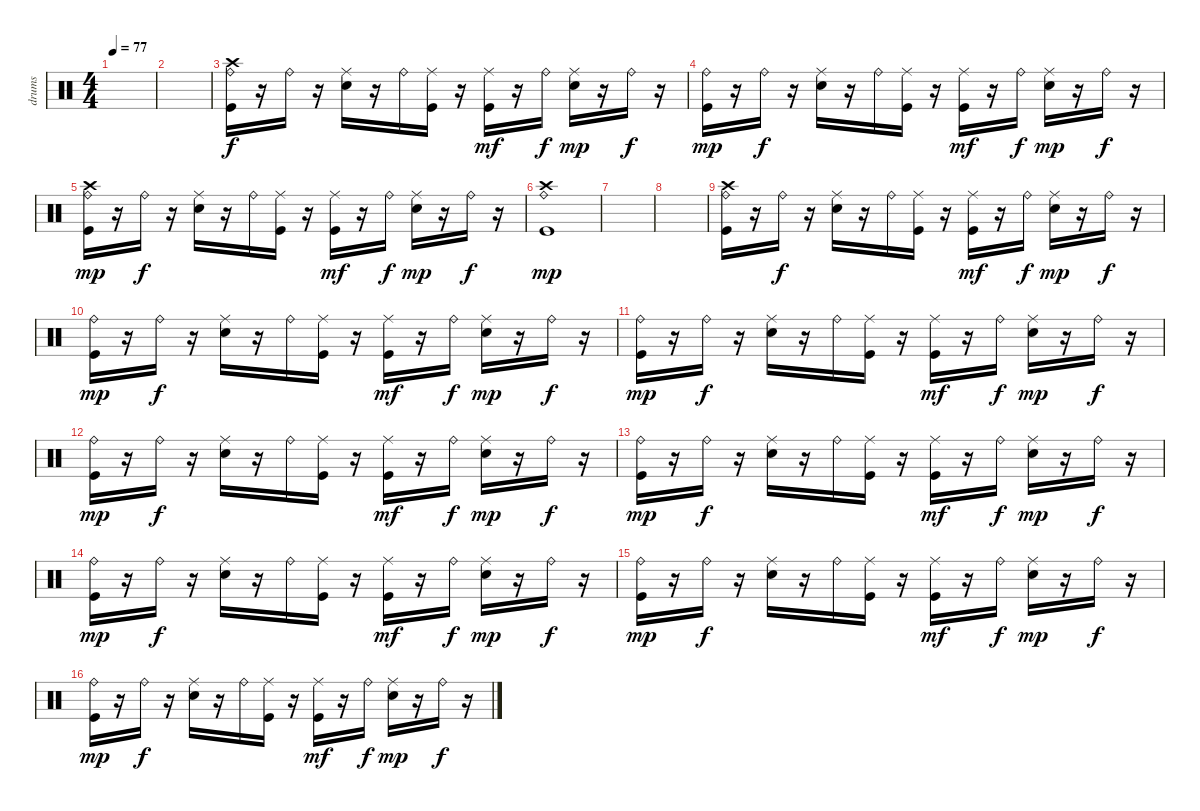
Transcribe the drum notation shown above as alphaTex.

\track ("drums" "drums") {instrument percussion}
\staff {score}
\articulation defaults
\ts (4 4)
\tempo 77
\clef neutral
\ks c
|
|
("Crash high (hit)" "Kick (hit)" "Ride (bell)").16 r.16 "Ride (bell)".16{dy f} r.16 ("Snare (hit) 2" "Ride (middle)").16 r.16 "Ride (bell)".16 ("Kick (hit)" "Ride (middle)").16 r.16 ("Kick (hit)" "Ride (middle)").16{dy mf} r.16 "Ride (bell)".16{dy f} ("Snare (hit) 2" "Ride (middle)").16{dy mp} r.16 "Ride (bell)".16{dy f} r.16 |
("Kick (hit)" "Ride (bell)").16{dy mp} r.16 "Ride (bell)".16{dy f} r.16 ("Snare (hit) 2" "Ride (middle)").16 r.16 "Ride (bell)".16 ("Kick (hit)" "Ride (middle)").16 r.16 ("Kick (hit)" "Ride (middle)").16{dy mf} r.16 "Ride (bell)".16{dy f} ("Snare (hit) 2" "Ride (middle)").16{dy mp} r.16 "Ride (bell)".16{dy f} r.16 |
("Crash high (hit)" "Kick (hit)" "Ride (bell)").16{dy mp} r.16 "Ride (bell)".16{dy f} r.16 ("Snare (hit) 2" "Ride (middle)").16 r.16 "Ride (bell)".16 ("Kick (hit)" "Ride (middle)").16 r.16 ("Kick (hit)" "Ride (middle)").16{dy mf} r.16 "Ride (bell)".16{dy f} ("Snare (hit) 2" "Ride (middle)").16{dy mp} r.16 "Ride (bell)".16{dy f} r.16 |
("Crash high (hit)" "Kick (hit)" "Ride (bell)").1{dy mp} |
|
|
("Crash high (hit)" "Kick (hit)" "Ride (bell)").16{volume 8} r.16 "Ride (bell)".16{dy f} r.16 ("Snare (hit) 2" "Ride (middle)").16 r.16 "Ride (bell)".16 ("Kick (hit)" "Ride (middle)").16 r.16 ("Kick (hit)" "Ride (middle)").16{dy mf} r.16 "Ride (bell)".16{dy f} ("Snare (hit) 2" "Ride (middle)").16{dy mp} r.16 "Ride (bell)".16{dy f} r.16 |
("Kick (hit)" "Ride (bell)").16{dy mp} r.16 "Ride (bell)".16{dy f} r.16 ("Snare (hit) 2" "Ride (middle)").16 r.16 "Ride (bell)".16 ("Kick (hit)" "Ride (middle)").16 r.16 ("Kick (hit)" "Ride (middle)").16{dy mf} r.16 "Ride (bell)".16{dy f} ("Snare (hit) 2" "Ride (middle)").16{dy mp} r.16 "Ride (bell)".16{dy f} r.16 |
("Kick (hit)" "Ride (bell)").16{dy mp} r.16 "Ride (bell)".16{dy f} r.16 ("Snare (hit) 2" "Ride (middle)").16 r.16 "Ride (bell)".16 ("Kick (hit)" "Ride (middle)").16 r.16 ("Kick (hit)" "Ride (middle)").16{dy mf} r.16 "Ride (bell)".16{dy f} ("Snare (hit) 2" "Ride (middle)").16{dy mp} r.16 "Ride (bell)".16{dy f} r.16 |
("Kick (hit)" "Ride (bell)").16{dy mp} r.16 "Ride (bell)".16{dy f} r.16 ("Snare (hit) 2" "Ride (middle)").16 r.16 "Ride (bell)".16 ("Kick (hit)" "Ride (middle)").16 r.16 ("Kick (hit)" "Ride (middle)").16{dy mf} r.16 "Ride (bell)".16{dy f} ("Snare (hit) 2" "Ride (middle)").16{dy mp} r.16 "Ride (bell)".16{dy f} r.16 |
("Kick (hit)" "Ride (bell)").16{dy mp} r.16 "Ride (bell)".16{dy f} r.16 ("Snare (hit) 2" "Ride (middle)").16 r.16 "Ride (bell)".16 ("Kick (hit)" "Ride (middle)").16 r.16 ("Kick (hit)" "Ride (middle)").16{dy mf} r.16 "Ride (bell)".16{dy f} ("Snare (hit) 2" "Ride (middle)").16{dy mp} r.16 "Ride (bell)".16{dy f} r.16 |
("Kick (hit)" "Ride (bell)").16{dy mp} r.16 "Ride (bell)".16{dy f} r.16 ("Snare (hit) 2" "Ride (middle)").16 r.16 "Ride (bell)".16 ("Kick (hit)" "Ride (middle)").16 r.16 ("Kick (hit)" "Ride (middle)").16{dy mf} r.16 "Ride (bell)".16{dy f} ("Snare (hit) 2" "Ride (middle)").16{dy mp} r.16 "Ride (bell)".16{dy f} r.16 |
("Kick (hit)" "Ride (bell)").16{dy mp} r.16 "Ride (bell)".16{dy f} r.16 ("Snare (hit) 2" "Ride (middle)").16 r.16 "Ride (bell)".16 ("Kick (hit)" "Ride (middle)").16 r.16 ("Kick (hit)" "Ride (middle)").16{dy mf} r.16 "Ride (bell)".16{dy f} ("Snare (hit) 2" "Ride (middle)").16{dy mp} r.16 "Ride (bell)".16{dy f} r.16 |
("Kick (hit)" "Ride (bell)").16{dy mp} r.16 "Ride (bell)".16{dy f} r.16 ("Snare (hit) 2" "Ride (middle)").16 r.16 "Ride (bell)".16 ("Kick (hit)" "Ride (middle)").16 r.16 ("Kick (hit)" "Ride (middle)").16{dy mf} r.16 "Ride (bell)".16{dy f} ("Snare (hit) 2" "Ride (middle)").16{dy mp} r.16 "Ride (bell)".16{dy f} r.16
